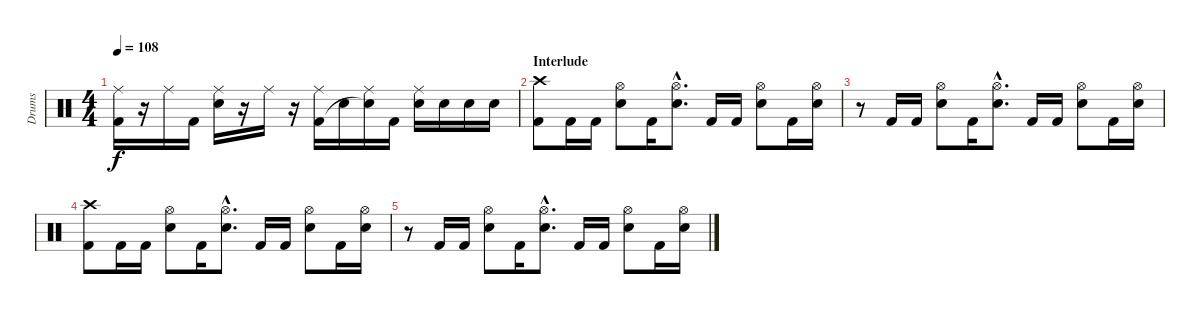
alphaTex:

\track ("Drums" "Drums") {instrument percussion}
\staff {score}
\articulation defaults
\ts (4 4)
\tempo 108
\clef neutral
\ks c
("Ride (middle)" "Kick (hit) 2").16{dy f} r.16 "Ride (middle)".16 "Kick (hit) 2".16 ("Ride (middle)" "Electric Snare (hit)").16 r.16 "Ride (middle)".16 r.16 ("Ride (middle)" "Kick (hit) 2").16 "Electric Snare (hit)".16 ("Ride (middle)" "Electric Snare (hit)"{t}).16 "Kick (hit) 2".16 ("Ride (middle)" "Electric Snare (hit)").16 "Electric Snare (hit)".16 "Electric Snare (hit)".16 "Electric Snare (hit)".16 |
\section ("" "Interlude")
("Crash high (hit)" "Kick (hit) 2").8 "Kick (hit) 2".16 "Kick (hit) 2".16 ("Hi-Hat (open)" "Electric Snare (hit)").8 "Kick (hit) 2".16 ("Hi-Hat (open)"{hac} "Electric Snare (hit)"{hac}).8{d} "Kick (hit) 2".16 "Kick (hit) 2".16 ("Hi-Hat (open)" "Electric Snare (hit)").8 "Kick (hit) 2".16 ("Hi-Hat (open)" "Electric Snare (hit)").16 |
r.8 "Kick (hit) 2".16 "Kick (hit) 2".16 ("Hi-Hat (open)" "Electric Snare (hit)").8 "Kick (hit) 2".16 ("Hi-Hat (open)"{hac} "Electric Snare (hit)"{hac}).8{d} "Kick (hit) 2".16 "Kick (hit) 2".16 ("Hi-Hat (open)" "Electric Snare (hit)").8 "Kick (hit) 2".16 ("Hi-Hat (open)" "Electric Snare (hit)").16 |
("Crash high (hit)" "Kick (hit) 2").8 "Kick (hit) 2".16 "Kick (hit) 2".16 ("Hi-Hat (open)" "Electric Snare (hit)").8 "Kick (hit) 2".16 ("Hi-Hat (open)"{hac} "Electric Snare (hit)"{hac}).8{d} "Kick (hit) 2".16 "Kick (hit) 2".16 ("Hi-Hat (open)" "Electric Snare (hit)").8 "Kick (hit) 2".16 ("Hi-Hat (open)" "Electric Snare (hit)").16 |
r.8 "Kick (hit) 2".16 "Kick (hit) 2".16 ("Hi-Hat (open)" "Electric Snare (hit)").8 "Kick (hit) 2".16 ("Hi-Hat (open)"{hac} "Electric Snare (hit)"{hac}).8{d} "Kick (hit) 2".16 "Kick (hit) 2".16 ("Hi-Hat (open)" "Electric Snare (hit)").8 "Kick (hit) 2".16 ("Hi-Hat (open)" "Electric Snare (hit)").16
